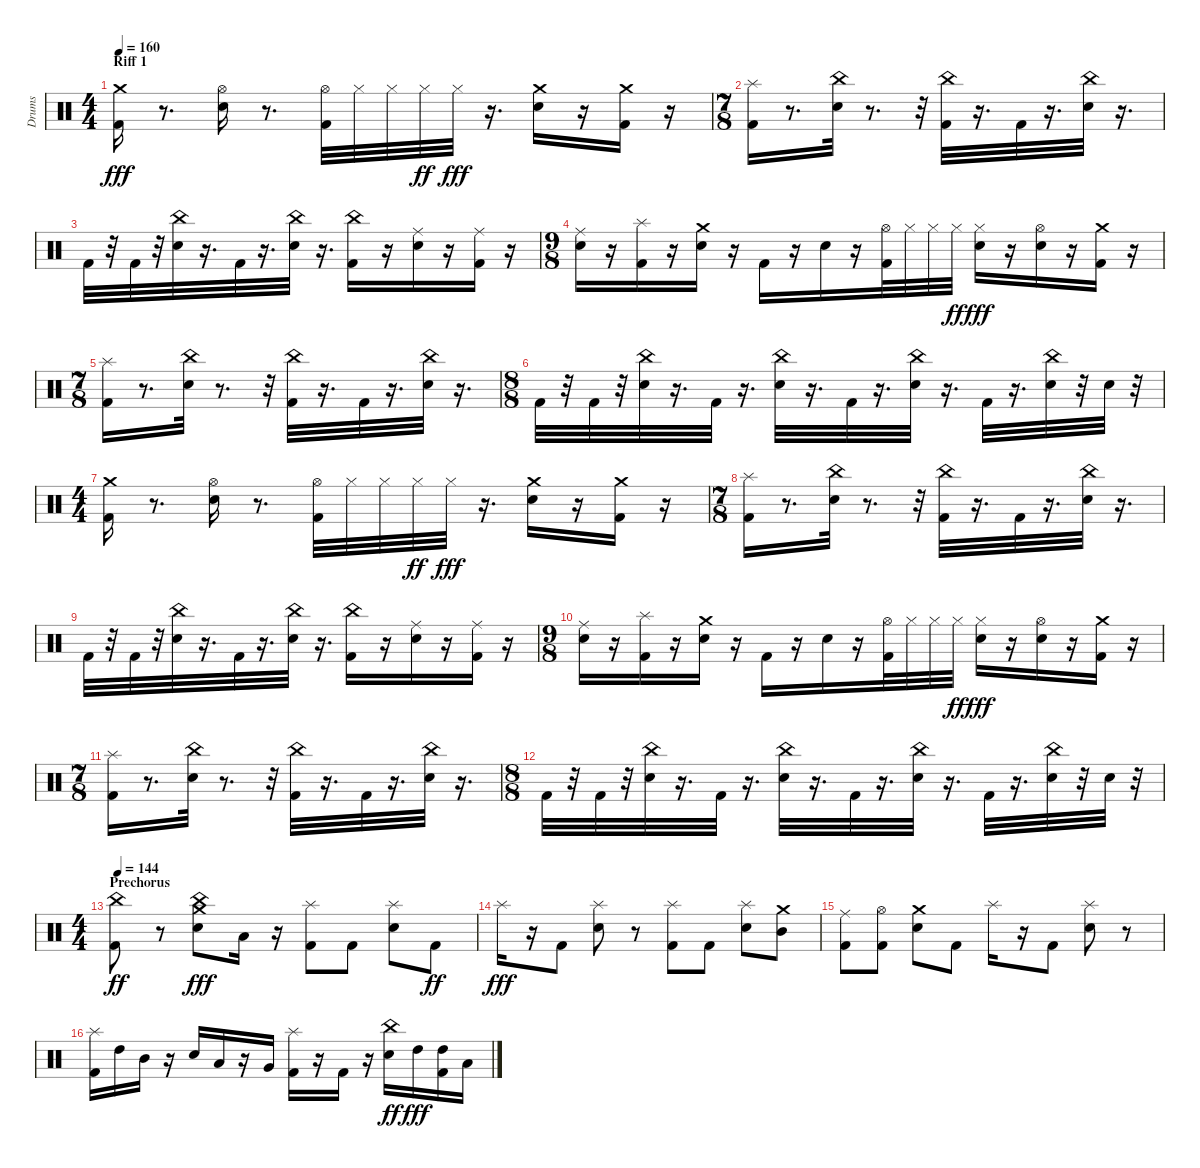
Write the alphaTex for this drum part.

\track ("Drums" "Drums") {instrument percussion}
\staff {score}
\articulation defaults
\ts (4 4)
\section ("" "Riff 1")
\tempo 160
\clef neutral
\ks c
("Kick (hit) 2" "Crash medium (hit)").16{dy fff} r.8{d} ("Snare (hit) 2" "Hi-Hat (open)").16 r.8{d} ("Kick (hit) 2" "Hi-Hat (open)").32 "Hi-Hat (closed)".32 "Hi-Hat (closed)".32 "Hi-Hat (closed)".32{dy ff} "Hi-Hat (closed)".32{dy fff} r.16{d} ("Snare (hit) 2" "Crash medium (hit)").16 r.16 ("Kick (hit) 2" "Crash medium (hit)").16 r.16 |
\ts (7 8)
("Kick (hit) 2" "Splash (hit)").16 r.8{d} ("Snare (hit) 2" "China (hit)").32 r.8{d} r.32 ("Kick (hit) 2" "China (hit)").32 r.16{d} "Kick (hit) 2".32 r.16{d} ("Snare (hit) 2" "China (hit)").32 r.16{d} |
"Kick (hit) 2".32 r.32 "Kick (hit) 2".32 r.32 ("Snare (hit) 2" "China (hit)").32 r.16{d} "Kick (hit) 2".32 r.16{d} ("Snare (hit) 2" "China (hit)").32 r.16{d} ("Kick (hit) 2" "China (hit)").16 r.16 ("Snare (hit) 2" "Ride (middle)").16 r.16 ("Kick (hit) 2" "Ride (middle)").16 r.16 |
\ts (9 8)
("Snare (hit) 2" "Ride (middle)").16 r.16 ("Kick (hit) 2" "Splash (hit)").16 r.16 ("Snare (hit) 2" "Crash medium (hit)").16 r.16 "Kick (hit) 2".16 r.16 "Snare (hit) 2".16 r.16 ("Kick (hit) 2" "Hi-Hat (open)").32 "Hi-Hat (closed)".32 "Hi-Hat (closed)".32 "Hi-Hat (closed)".32{dy ff} ("Snare (hit) 2" "Hi-Hat (closed)").16{dy fff} r.16 ("Snare (hit) 2" "Hi-Hat (open)").16 r.16 ("Kick (hit) 2" "Crash medium (hit)").16 r.16 |
\ts (7 8)
("Kick (hit) 2" "Splash (hit)").16 r.8{d} ("Snare (hit) 2" "China (hit)").32 r.8{d} r.32 ("Kick (hit) 2" "China (hit)").32 r.16{d} "Kick (hit) 2".32 r.16{d} ("Snare (hit) 2" "China (hit)").32 r.16{d} |
\ts (8 8)
"Kick (hit) 2".32 r.32 "Kick (hit) 2".32 r.32 ("Snare (hit) 2" "China (hit)").32 r.16{d} "Kick (hit) 2".32 r.16{d} ("Snare (hit) 2" "China (hit)").32 r.16{d} "Kick (hit) 2".32 r.16{d} ("Snare (hit) 2" "China (hit)").32 r.16{d} "Kick (hit) 2".32 r.16{d} ("Snare (hit) 2" "China (hit)").32 r.32 "Snare (hit) 2".32 r.32 |
\ts (4 4)
("Kick (hit) 2" "Crash medium (hit)").16 r.8{d} ("Snare (hit) 2" "Hi-Hat (open)").16 r.8{d} ("Kick (hit) 2" "Hi-Hat (open)").32 "Hi-Hat (closed)".32 "Hi-Hat (closed)".32 "Hi-Hat (closed)".32{dy ff} "Hi-Hat (closed)".32{dy fff} r.16{d} ("Snare (hit) 2" "Crash medium (hit)").16 r.16 ("Kick (hit) 2" "Crash medium (hit)").16 r.16 |
\ts (7 8)
("Kick (hit) 2" "Splash (hit)").16 r.8{d} ("Snare (hit) 2" "China (hit)").32 r.8{d} r.32 ("Kick (hit) 2" "China (hit)").32 r.16{d} "Kick (hit) 2".32 r.16{d} ("Snare (hit) 2" "China (hit)").32 r.16{d} |
"Kick (hit) 2".32 r.32 "Kick (hit) 2".32 r.32 ("Snare (hit) 2" "China (hit)").32 r.16{d} "Kick (hit) 2".32 r.16{d} ("Snare (hit) 2" "China (hit)").32 r.16{d} ("Kick (hit) 2" "China (hit)").16 r.16 ("Snare (hit) 2" "Ride (middle)").16 r.16 ("Kick (hit) 2" "Ride (middle)").16 r.16 |
\ts (9 8)
("Snare (hit) 2" "Ride (middle)").16 r.16 ("Kick (hit) 2" "Splash (hit)").16 r.16 ("Snare (hit) 2" "Crash medium (hit)").16 r.16 "Kick (hit) 2".16 r.16 "Snare (hit) 2".16 r.16 ("Kick (hit) 2" "Hi-Hat (open)").32 "Hi-Hat (closed)".32 "Hi-Hat (closed)".32 "Hi-Hat (closed)".32{dy ff} ("Snare (hit) 2" "Hi-Hat (closed)").16{dy fff} r.16 ("Snare (hit) 2" "Hi-Hat (open)").16 r.16 ("Kick (hit) 2" "Crash medium (hit)").16 r.16 |
\ts (7 8)
("Kick (hit) 2" "Splash (hit)").16 r.8{d} ("Snare (hit) 2" "China (hit)").32 r.8{d} r.32 ("Kick (hit) 2" "China (hit)").32 r.16{d} "Kick (hit) 2".32 r.16{d} ("Snare (hit) 2" "China (hit)").32 r.16{d} |
\ts (8 8)
"Kick (hit) 2".32 r.32 "Kick (hit) 2".32 r.32 ("Snare (hit) 2" "China (hit)").32 r.16{d} "Kick (hit) 2".32 r.16{d} ("Snare (hit) 2" "China (hit)").32 r.16{d} "Kick (hit) 2".32 r.16{d} ("Snare (hit) 2" "China (hit)").32 r.16{d} "Kick (hit) 2".32 r.16{d} ("Snare (hit) 2" "China (hit)").32 r.32 "Snare (hit) 2".32 r.32 |
\ts (4 4)
\section ("" "Prechorus")
\tempo 144
("Kick (hit) 2" "China (hit)").8{dy ff} r.8 ("Snare (hit) 2" "Crash medium (hit)" "China (hit)").8{dy fff} "Low Tom (hit)".16 r.16 ("Kick (hit) 2" "Splash (hit)").8 "Kick (hit) 2".8 ("Snare (hit) 2" "Splash (hit)").8 "Kick (hit) 2".8{dy ff} |
"Splash (hit)".16{dy fff} r.16 "Kick (hit) 2".8 ("Snare (hit) 2" "Splash (hit)").8 r.8 ("Kick (hit) 2" "Splash (hit)").8 "Kick (hit) 2".8 ("Snare (hit) 2" "Splash (hit)").8 ("Mid Tom (hit)" "Crash medium (hit)").8 |
("Kick (hit) 2" "Ride (middle)").8 ("Kick (hit) 2" "Hi-Hat (open)").8 ("Snare (hit) 2" "Crash medium (hit)").8 "Kick (hit) 2".8 "Splash (hit)".16 r.16 "Kick (hit) 2".8 ("Snare (hit) 2" "Splash (hit)").8 r.8 |
("Kick (hit) 2" "Splash (hit)").16 "High Tom (hit)".16 "Mid Tom (hit)".16 r.16 "Snare (hit) 2".16 "Low Tom (hit)".16 r.16 "Very Low Tom (hit)".16 ("Kick (hit) 2" "Splash (hit)").16 r.16 "Kick (hit) 2".16 r.16 ("Snare (hit) 2" "China (hit)").16{dy ff} "High Tom (hit)".16{dy fff} ("Kick (hit) 2" "High Tom (hit)").16 "Low Tom (hit)".16
